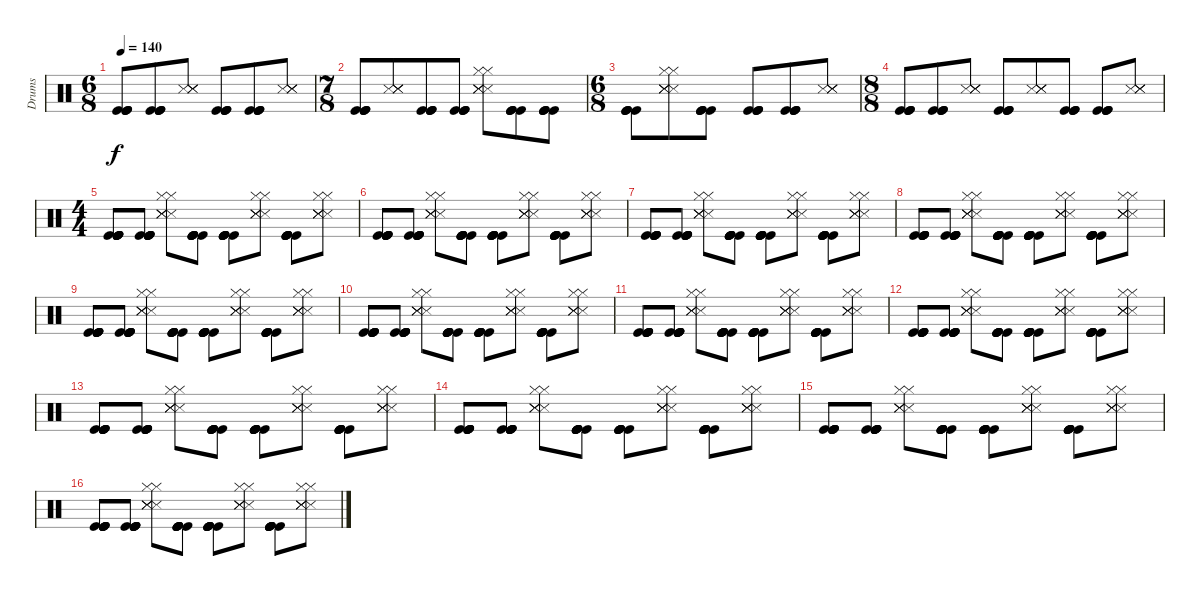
\track ("Drums" "Drums") {instrument percussion}
\staff {score}
\articulation defaults
\ts (6 8)
\tempo 140
\clef neutral
\ks c
("Kick (hit)" "Kick (hit)" "Kick (hit)" "Kick (hit)").8{dy f} ("Kick (hit)" "Kick (hit)" "Kick (hit)" "Kick (hit)").8 ("Metronome (hit)" "Metronome (hit)" "Metronome (hit)" "Metronome (hit)").8 ("Kick (hit)" "Kick (hit)" "Kick (hit)" "Kick (hit)").8 ("Kick (hit)" "Kick (hit)" "Kick (hit)" "Kick (hit)").8 ("Metronome (hit)" "Metronome (hit)" "Metronome (hit)" "Metronome (hit)").8 |
\ts (7 8)
("Kick (hit)" "Kick (hit)" "Kick (hit)" "Kick (hit)").8 ("Metronome (hit)" "Metronome (hit)" "Metronome (hit)" "Metronome (hit)").8 ("Kick (hit)" "Kick (hit)" "Kick (hit)" "Kick (hit)").8 ("Kick (hit)" "Kick (hit)" "Kick (hit)" "Kick (hit)").8 ("Hi-Hat (closed)" "Hi-Hat (closed)" "Metronome (hit)" "Metronome (hit)" "Metronome (hit)" "Metronome (hit)").8 ("Kick (hit)" "Kick (hit)" "Kick (hit)" "Kick (hit)").8 ("Kick (hit)" "Kick (hit)" "Kick (hit)" "Kick (hit)").8 |
\ts (6 8)
("Kick (hit)" "Kick (hit)" "Kick (hit)" "Kick (hit)").8 ("Hi-Hat (closed)" "Hi-Hat (closed)" "Metronome (hit)" "Metronome (hit)" "Metronome (hit)" "Metronome (hit)").8 ("Kick (hit)" "Kick (hit)" "Kick (hit)" "Kick (hit)").8 ("Kick (hit)" "Kick (hit)" "Kick (hit)" "Kick (hit)").8 ("Kick (hit)" "Kick (hit)" "Kick (hit)" "Kick (hit)").8 ("Metronome (hit)" "Metronome (hit)" "Metronome (hit)" "Metronome (hit)").8 |
\ts (8 8)
("Kick (hit)" "Kick (hit)" "Kick (hit)" "Kick (hit)").8 ("Kick (hit)" "Kick (hit)" "Kick (hit)" "Kick (hit)").8 ("Metronome (hit)" "Metronome (hit)" "Metronome (hit)" "Metronome (hit)").8 ("Kick (hit)" "Kick (hit)" "Kick (hit)" "Kick (hit)").8 ("Metronome (hit)" "Metronome (hit)" "Metronome (hit)" "Metronome (hit)").8 ("Kick (hit)" "Kick (hit)" "Kick (hit)" "Kick (hit)").8 ("Kick (hit)" "Kick (hit)" "Kick (hit)" "Kick (hit)").8 ("Metronome (hit)" "Metronome (hit)" "Metronome (hit)" "Metronome (hit)").8 |
\ts (4 4)
("Kick (hit)" "Kick (hit)" "Kick (hit)" "Kick (hit)" "Kick (hit)" "Kick (hit)").8 ("Kick (hit)" "Kick (hit)" "Kick (hit)" "Kick (hit)" "Kick (hit)" "Kick (hit)").8 ("Hi-Hat (closed)" "Hi-Hat (closed)" "Metronome (hit)" "Metronome (hit)" "Metronome (hit)" "Metronome (hit)").8 ("Kick (hit)" "Kick (hit)" "Kick (hit)" "Kick (hit)" "Kick (hit)" "Kick (hit)").8 ("Kick (hit)" "Kick (hit)" "Kick (hit)" "Kick (hit)" "Kick (hit)" "Kick (hit)").8 ("Hi-Hat (closed)" "Hi-Hat (closed)" "Metronome (hit)" "Metronome (hit)" "Metronome (hit)" "Metronome (hit)").8 ("Kick (hit)" "Kick (hit)" "Kick (hit)" "Kick (hit)" "Kick (hit)" "Kick (hit)").8 ("Hi-Hat (closed)" "Hi-Hat (closed)" "Metronome (hit)" "Metronome (hit)" "Metronome (hit)" "Metronome (hit)").8 |
("Kick (hit)" "Kick (hit)" "Kick (hit)" "Kick (hit)" "Kick (hit)" "Kick (hit)").8 ("Kick (hit)" "Kick (hit)" "Kick (hit)" "Kick (hit)" "Kick (hit)" "Kick (hit)").8 ("Hi-Hat (closed)" "Hi-Hat (closed)" "Metronome (hit)" "Metronome (hit)" "Metronome (hit)" "Metronome (hit)").8 ("Kick (hit)" "Kick (hit)" "Kick (hit)" "Kick (hit)" "Kick (hit)" "Kick (hit)").8 ("Kick (hit)" "Kick (hit)" "Kick (hit)" "Kick (hit)" "Kick (hit)" "Kick (hit)").8 ("Hi-Hat (closed)" "Hi-Hat (closed)" "Metronome (hit)" "Metronome (hit)" "Metronome (hit)" "Metronome (hit)").8 ("Kick (hit)" "Kick (hit)" "Kick (hit)" "Kick (hit)" "Kick (hit)" "Kick (hit)").8 ("Hi-Hat (closed)" "Hi-Hat (closed)" "Metronome (hit)" "Metronome (hit)" "Metronome (hit)" "Metronome (hit)").8 |
("Kick (hit)" "Kick (hit)" "Kick (hit)" "Kick (hit)" "Kick (hit)" "Kick (hit)").8 ("Kick (hit)" "Kick (hit)" "Kick (hit)" "Kick (hit)" "Kick (hit)" "Kick (hit)").8 ("Hi-Hat (closed)" "Hi-Hat (closed)" "Metronome (hit)" "Metronome (hit)" "Metronome (hit)" "Metronome (hit)").8 ("Kick (hit)" "Kick (hit)" "Kick (hit)" "Kick (hit)" "Kick (hit)" "Kick (hit)").8 ("Kick (hit)" "Kick (hit)" "Kick (hit)" "Kick (hit)" "Kick (hit)" "Kick (hit)").8 ("Hi-Hat (closed)" "Hi-Hat (closed)" "Metronome (hit)" "Metronome (hit)" "Metronome (hit)" "Metronome (hit)").8 ("Kick (hit)" "Kick (hit)" "Kick (hit)" "Kick (hit)" "Kick (hit)" "Kick (hit)").8 ("Hi-Hat (closed)" "Hi-Hat (closed)" "Metronome (hit)" "Metronome (hit)" "Metronome (hit)" "Metronome (hit)").8 |
("Kick (hit)" "Kick (hit)" "Kick (hit)" "Kick (hit)" "Kick (hit)" "Kick (hit)").8 ("Kick (hit)" "Kick (hit)" "Kick (hit)" "Kick (hit)" "Kick (hit)" "Kick (hit)").8 ("Hi-Hat (closed)" "Hi-Hat (closed)" "Metronome (hit)" "Metronome (hit)" "Metronome (hit)" "Metronome (hit)").8 ("Kick (hit)" "Kick (hit)" "Kick (hit)" "Kick (hit)" "Kick (hit)" "Kick (hit)").8 ("Kick (hit)" "Kick (hit)" "Kick (hit)" "Kick (hit)" "Kick (hit)" "Kick (hit)").8 ("Hi-Hat (closed)" "Hi-Hat (closed)" "Metronome (hit)" "Metronome (hit)" "Metronome (hit)" "Metronome (hit)").8 ("Kick (hit)" "Kick (hit)" "Kick (hit)" "Kick (hit)" "Kick (hit)" "Kick (hit)").8 ("Hi-Hat (closed)" "Hi-Hat (closed)" "Metronome (hit)" "Metronome (hit)" "Metronome (hit)" "Metronome (hit)").8 |
("Kick (hit)" "Kick (hit)" "Kick (hit)" "Kick (hit)" "Kick (hit)" "Kick (hit)").8 ("Kick (hit)" "Kick (hit)" "Kick (hit)" "Kick (hit)" "Kick (hit)" "Kick (hit)").8 ("Hi-Hat (closed)" "Hi-Hat (closed)" "Metronome (hit)" "Metronome (hit)" "Metronome (hit)" "Metronome (hit)").8 ("Kick (hit)" "Kick (hit)" "Kick (hit)" "Kick (hit)" "Kick (hit)" "Kick (hit)").8 ("Kick (hit)" "Kick (hit)" "Kick (hit)" "Kick (hit)" "Kick (hit)" "Kick (hit)").8 ("Hi-Hat (closed)" "Hi-Hat (closed)" "Metronome (hit)" "Metronome (hit)" "Metronome (hit)" "Metronome (hit)").8 ("Kick (hit)" "Kick (hit)" "Kick (hit)" "Kick (hit)" "Kick (hit)" "Kick (hit)").8 ("Hi-Hat (closed)" "Hi-Hat (closed)" "Metronome (hit)" "Metronome (hit)" "Metronome (hit)" "Metronome (hit)").8 |
("Kick (hit)" "Kick (hit)" "Kick (hit)" "Kick (hit)" "Kick (hit)" "Kick (hit)").8 ("Kick (hit)" "Kick (hit)" "Kick (hit)" "Kick (hit)" "Kick (hit)" "Kick (hit)").8 ("Hi-Hat (closed)" "Hi-Hat (closed)" "Metronome (hit)" "Metronome (hit)" "Metronome (hit)" "Metronome (hit)").8 ("Kick (hit)" "Kick (hit)" "Kick (hit)" "Kick (hit)" "Kick (hit)" "Kick (hit)").8 ("Kick (hit)" "Kick (hit)" "Kick (hit)" "Kick (hit)" "Kick (hit)" "Kick (hit)").8 ("Hi-Hat (closed)" "Hi-Hat (closed)" "Metronome (hit)" "Metronome (hit)" "Metronome (hit)" "Metronome (hit)").8 ("Kick (hit)" "Kick (hit)" "Kick (hit)" "Kick (hit)" "Kick (hit)" "Kick (hit)").8 ("Hi-Hat (closed)" "Hi-Hat (closed)" "Metronome (hit)" "Metronome (hit)" "Metronome (hit)" "Metronome (hit)").8 |
("Kick (hit)" "Kick (hit)" "Kick (hit)" "Kick (hit)" "Kick (hit)" "Kick (hit)").8 ("Kick (hit)" "Kick (hit)" "Kick (hit)" "Kick (hit)" "Kick (hit)" "Kick (hit)").8 ("Hi-Hat (closed)" "Hi-Hat (closed)" "Metronome (hit)" "Metronome (hit)" "Metronome (hit)" "Metronome (hit)").8 ("Kick (hit)" "Kick (hit)" "Kick (hit)" "Kick (hit)" "Kick (hit)" "Kick (hit)").8 ("Kick (hit)" "Kick (hit)" "Kick (hit)" "Kick (hit)" "Kick (hit)" "Kick (hit)").8 ("Hi-Hat (closed)" "Hi-Hat (closed)" "Metronome (hit)" "Metronome (hit)" "Metronome (hit)" "Metronome (hit)").8 ("Kick (hit)" "Kick (hit)" "Kick (hit)" "Kick (hit)" "Kick (hit)" "Kick (hit)").8 ("Hi-Hat (closed)" "Hi-Hat (closed)" "Metronome (hit)" "Metronome (hit)" "Metronome (hit)" "Metronome (hit)").8 |
("Kick (hit)" "Kick (hit)" "Kick (hit)" "Kick (hit)" "Kick (hit)" "Kick (hit)").8 ("Kick (hit)" "Kick (hit)" "Kick (hit)" "Kick (hit)" "Kick (hit)" "Kick (hit)").8 ("Hi-Hat (closed)" "Hi-Hat (closed)" "Metronome (hit)" "Metronome (hit)" "Metronome (hit)" "Metronome (hit)").8 ("Kick (hit)" "Kick (hit)" "Kick (hit)" "Kick (hit)" "Kick (hit)" "Kick (hit)").8 ("Kick (hit)" "Kick (hit)" "Kick (hit)" "Kick (hit)" "Kick (hit)" "Kick (hit)").8 ("Hi-Hat (closed)" "Hi-Hat (closed)" "Metronome (hit)" "Metronome (hit)" "Metronome (hit)" "Metronome (hit)").8 ("Kick (hit)" "Kick (hit)" "Kick (hit)" "Kick (hit)" "Kick (hit)" "Kick (hit)").8 ("Hi-Hat (closed)" "Hi-Hat (closed)" "Metronome (hit)" "Metronome (hit)" "Metronome (hit)" "Metronome (hit)").8 |
("Kick (hit)" "Kick (hit)" "Kick (hit)" "Kick (hit)" "Kick (hit)" "Kick (hit)").8 ("Kick (hit)" "Kick (hit)" "Kick (hit)" "Kick (hit)" "Kick (hit)" "Kick (hit)").8 ("Hi-Hat (closed)" "Hi-Hat (closed)" "Metronome (hit)" "Metronome (hit)" "Metronome (hit)" "Metronome (hit)").8 ("Kick (hit)" "Kick (hit)" "Kick (hit)" "Kick (hit)" "Kick (hit)" "Kick (hit)").8 ("Kick (hit)" "Kick (hit)" "Kick (hit)" "Kick (hit)" "Kick (hit)" "Kick (hit)").8 ("Hi-Hat (closed)" "Hi-Hat (closed)" "Metronome (hit)" "Metronome (hit)" "Metronome (hit)" "Metronome (hit)").8 ("Kick (hit)" "Kick (hit)" "Kick (hit)" "Kick (hit)" "Kick (hit)" "Kick (hit)").8 ("Hi-Hat (closed)" "Hi-Hat (closed)" "Metronome (hit)" "Metronome (hit)" "Metronome (hit)" "Metronome (hit)").8 |
("Kick (hit)" "Kick (hit)" "Kick (hit)" "Kick (hit)" "Kick (hit)" "Kick (hit)").8 ("Kick (hit)" "Kick (hit)" "Kick (hit)" "Kick (hit)" "Kick (hit)" "Kick (hit)").8 ("Hi-Hat (closed)" "Hi-Hat (closed)" "Metronome (hit)" "Metronome (hit)" "Metronome (hit)" "Metronome (hit)").8 ("Kick (hit)" "Kick (hit)" "Kick (hit)" "Kick (hit)" "Kick (hit)" "Kick (hit)").8 ("Kick (hit)" "Kick (hit)" "Kick (hit)" "Kick (hit)" "Kick (hit)" "Kick (hit)").8 ("Hi-Hat (closed)" "Hi-Hat (closed)" "Metronome (hit)" "Metronome (hit)" "Metronome (hit)" "Metronome (hit)").8 ("Kick (hit)" "Kick (hit)" "Kick (hit)" "Kick (hit)" "Kick (hit)" "Kick (hit)").8 ("Hi-Hat (closed)" "Hi-Hat (closed)" "Metronome (hit)" "Metronome (hit)" "Metronome (hit)" "Metronome (hit)").8 |
("Kick (hit)" "Kick (hit)" "Kick (hit)" "Kick (hit)" "Kick (hit)" "Kick (hit)").8 ("Kick (hit)" "Kick (hit)" "Kick (hit)" "Kick (hit)" "Kick (hit)" "Kick (hit)").8 ("Hi-Hat (closed)" "Hi-Hat (closed)" "Metronome (hit)" "Metronome (hit)" "Metronome (hit)" "Metronome (hit)").8 ("Kick (hit)" "Kick (hit)" "Kick (hit)" "Kick (hit)" "Kick (hit)" "Kick (hit)").8 ("Kick (hit)" "Kick (hit)" "Kick (hit)" "Kick (hit)" "Kick (hit)" "Kick (hit)").8 ("Hi-Hat (closed)" "Hi-Hat (closed)" "Metronome (hit)" "Metronome (hit)" "Metronome (hit)" "Metronome (hit)").8 ("Kick (hit)" "Kick (hit)" "Kick (hit)" "Kick (hit)" "Kick (hit)" "Kick (hit)").8 ("Hi-Hat (closed)" "Hi-Hat (closed)" "Metronome (hit)" "Metronome (hit)" "Metronome (hit)" "Metronome (hit)").8 |
("Kick (hit)" "Kick (hit)" "Kick (hit)" "Kick (hit)" "Kick (hit)" "Kick (hit)").8 ("Kick (hit)" "Kick (hit)" "Kick (hit)" "Kick (hit)" "Kick (hit)" "Kick (hit)").8 ("Hi-Hat (closed)" "Hi-Hat (closed)" "Metronome (hit)" "Metronome (hit)" "Metronome (hit)" "Metronome (hit)").8 ("Kick (hit)" "Kick (hit)" "Kick (hit)" "Kick (hit)" "Kick (hit)" "Kick (hit)").8 ("Kick (hit)" "Kick (hit)" "Kick (hit)" "Kick (hit)" "Kick (hit)" "Kick (hit)").8 ("Hi-Hat (closed)" "Hi-Hat (closed)" "Metronome (hit)" "Metronome (hit)" "Metronome (hit)" "Metronome (hit)").8 ("Kick (hit)" "Kick (hit)" "Kick (hit)" "Kick (hit)" "Kick (hit)" "Kick (hit)").8 ("Hi-Hat (closed)" "Hi-Hat (closed)" "Metronome (hit)" "Metronome (hit)" "Metronome (hit)" "Metronome (hit)").8
